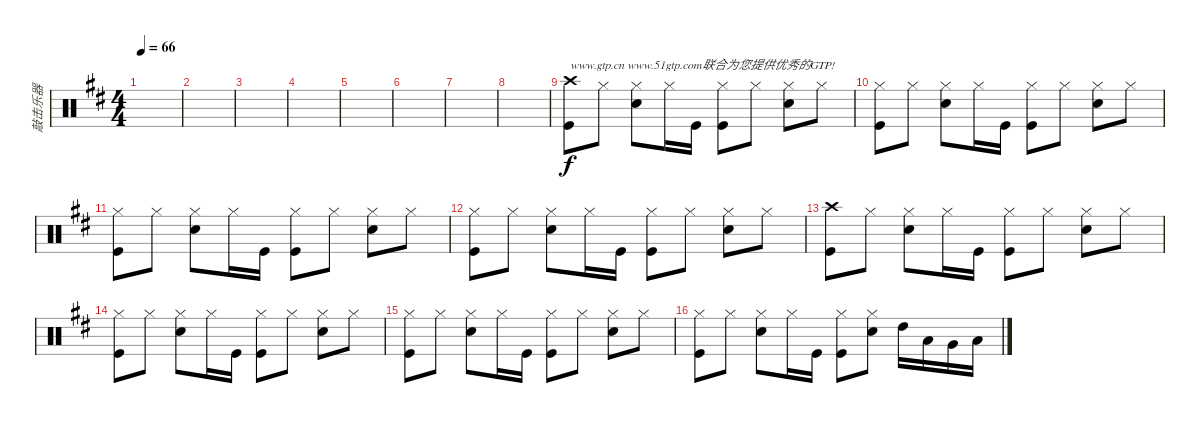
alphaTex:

\track ("敲击乐器" "敲击乐器") {instrument percussion}
\staff {score}
\articulation defaults
\ts (4 4)
\tempo 66
\clef neutral
\ks d
|
|
|
|
|
|
|
|
("Kick (hit)" "Crash high (hit)").8{txt "www.gtp.cn www.51gtp.com联合为您提供优秀的GTP!"} "Hi-Hat (closed)".8 ("Snare (hit) 2" "Hi-Hat (closed)").8 "Hi-Hat (closed)".16 "Kick (hit)".16 ("Kick (hit)" "Hi-Hat (closed)").8 "Hi-Hat (closed)".8 ("Snare (hit) 2" "Hi-Hat (closed)").8 "Hi-Hat (closed)".8 |
("Hi-Hat (closed)" "Kick (hit)").8 "Hi-Hat (closed)".8 ("Snare (hit) 2" "Hi-Hat (closed)").8 "Hi-Hat (closed)".16 "Kick (hit)".16 ("Kick (hit)" "Hi-Hat (closed)").8 "Hi-Hat (closed)".8 ("Snare (hit) 2" "Hi-Hat (closed)").8 "Hi-Hat (closed)".8 |
("Hi-Hat (closed)" "Kick (hit)").8 "Hi-Hat (closed)".8 ("Snare (hit) 2" "Hi-Hat (closed)").8 "Hi-Hat (closed)".16 "Kick (hit)".16 ("Kick (hit)" "Hi-Hat (closed)").8 "Hi-Hat (closed)".8 ("Snare (hit) 2" "Hi-Hat (closed)").8 "Hi-Hat (closed)".8 |
("Hi-Hat (closed)" "Kick (hit)").8 "Hi-Hat (closed)".8 ("Snare (hit) 2" "Hi-Hat (closed)").8 "Hi-Hat (closed)".16 "Kick (hit)".16 ("Kick (hit)" "Hi-Hat (closed)").8 "Hi-Hat (closed)".8 ("Snare (hit) 2" "Hi-Hat (closed)").8 "Hi-Hat (closed)".8 |
("Kick (hit)" "Crash high (hit)").8 "Hi-Hat (closed)".8 ("Snare (hit) 2" "Hi-Hat (closed)").8 "Hi-Hat (closed)".16 "Kick (hit)".16 ("Kick (hit)" "Hi-Hat (closed)").8 "Hi-Hat (closed)".8 ("Snare (hit) 2" "Hi-Hat (closed)").8 "Hi-Hat (closed)".8 |
("Hi-Hat (closed)" "Kick (hit)").8 "Hi-Hat (closed)".8 ("Snare (hit) 2" "Hi-Hat (closed)").8 "Hi-Hat (closed)".16 "Kick (hit)".16 ("Kick (hit)" "Hi-Hat (closed)").8 "Hi-Hat (closed)".8 ("Snare (hit) 2" "Hi-Hat (closed)").8 "Hi-Hat (closed)".8 |
("Hi-Hat (closed)" "Kick (hit)").8 "Hi-Hat (closed)".8 ("Snare (hit) 2" "Hi-Hat (closed)").8 "Hi-Hat (closed)".16 "Kick (hit)".16 ("Kick (hit)" "Hi-Hat (closed)").8 "Hi-Hat (closed)".8 ("Snare (hit) 2" "Hi-Hat (closed)").8 "Hi-Hat (closed)".8 |
("Hi-Hat (closed)" "Kick (hit)").8 "Hi-Hat (closed)".8 ("Snare (hit) 2" "Hi-Hat (closed)").8 "Hi-Hat (closed)".16 "Kick (hit)".16 ("Kick (hit)" "Hi-Hat (closed)").8 ("Snare (hit) 2" "Hi-Hat (closed)").8 "High Tom (hit)".16 "Low Tom (hit)".16 "Very Low Tom (hit)".16 "Low Floor Tom (hit)".16
